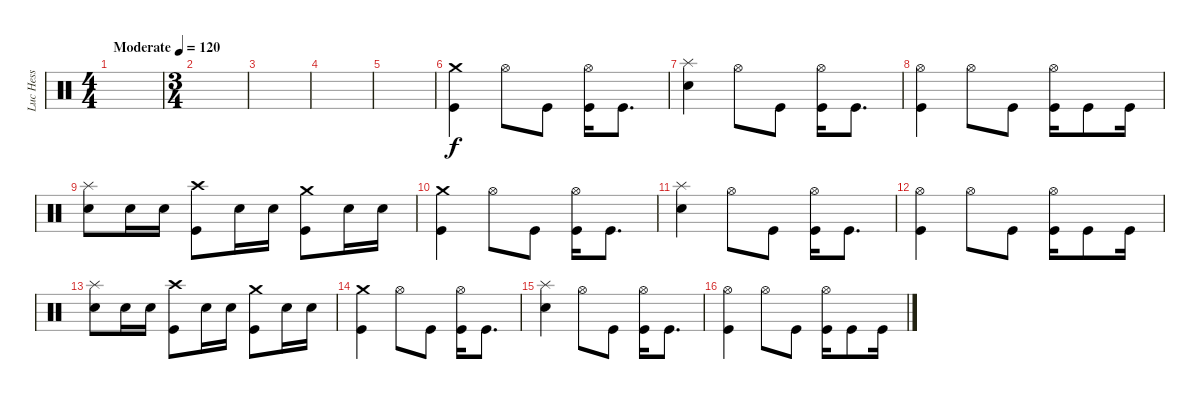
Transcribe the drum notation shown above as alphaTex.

\track ("Luc Hess" "Luc Hess") {instrument percussion}
\staff {score}
\articulation defaults
\ts (4 4)
\tempo (120 "Moderate")
\clef neutral
\ks c
|
\ts (3 4)
|
|
|
|
("Crash medium (hit)" "Kick (hit)").4 "Hi-Hat (open)".8 "Kick (hit)".8 ("Hi-Hat (open)" "Kick (hit)").16 "Kick (hit)".8{d} |
("Snare (hit) 2" "Splash (hit)").4 "Hi-Hat (open)".8 "Kick (hit)".8 ("Hi-Hat (open)" "Kick (hit)").16 "Kick (hit)".8{d} |
("Hi-Hat (open)" "Kick (hit)").4 "Hi-Hat (open)".8 "Kick (hit)".8 ("Hi-Hat (open)" "Kick (hit)").16 "Kick (hit)".8 "Kick (hit)".16 |
("Snare (hit) 2" "Splash (hit)").8 "Snare (hit) 2".16 "Snare (hit) 2".16 ("Crash high (hit)" "Kick (hit)").8 "Snare (hit) 2".16 "Snare (hit) 2".16 ("Crash medium (hit)" "Kick (hit)").8 "Snare (hit) 2".16 "Snare (hit) 2".16 |
("Crash medium (hit)" "Kick (hit)").4 "Hi-Hat (open)".8 "Kick (hit)".8 ("Hi-Hat (open)" "Kick (hit)").16 "Kick (hit)".8{d} |
("Snare (hit) 2" "Splash (hit)").4 "Hi-Hat (open)".8 "Kick (hit)".8 ("Hi-Hat (open)" "Kick (hit)").16 "Kick (hit)".8{d} |
("Hi-Hat (open)" "Kick (hit)").4 "Hi-Hat (open)".8 "Kick (hit)".8 ("Hi-Hat (open)" "Kick (hit)").16 "Kick (hit)".8 "Kick (hit)".16 |
("Snare (hit) 2" "Splash (hit)").8 "Snare (hit) 2".16 "Snare (hit) 2".16 ("Crash high (hit)" "Kick (hit)").8 "Snare (hit) 2".16 "Snare (hit) 2".16 ("Crash medium (hit)" "Kick (hit)").8 "Snare (hit) 2".16 "Snare (hit) 2".16 |
("Crash medium (hit)" "Kick (hit)").4 "Hi-Hat (open)".8 "Kick (hit)".8 ("Hi-Hat (open)" "Kick (hit)").16 "Kick (hit)".8{d} |
("Snare (hit) 2" "Splash (hit)").4 "Hi-Hat (open)".8 "Kick (hit)".8 ("Hi-Hat (open)" "Kick (hit)").16 "Kick (hit)".8{d} |
("Hi-Hat (open)" "Kick (hit)").4 "Hi-Hat (open)".8 "Kick (hit)".8 ("Hi-Hat (open)" "Kick (hit)").16 "Kick (hit)".8 "Kick (hit)".16
